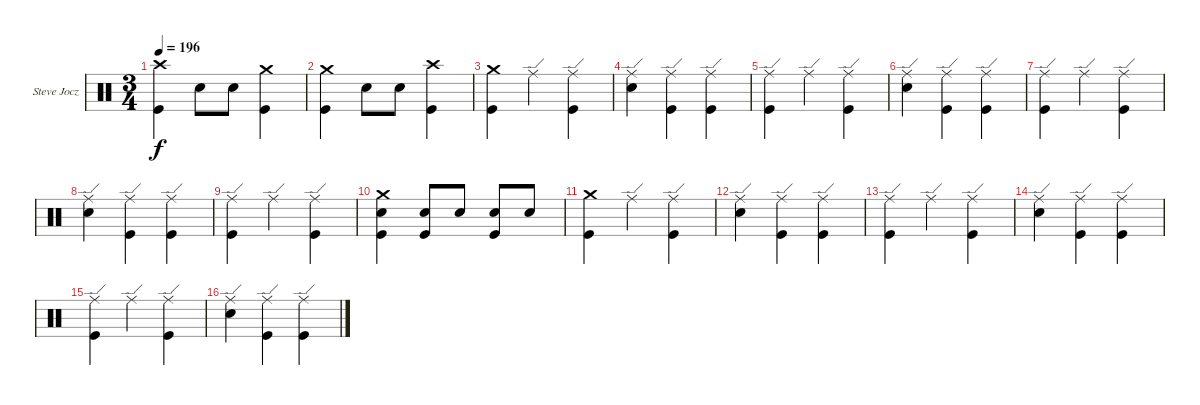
\defaultSystemsLayout 4
\bracketExtendMode groupsimilarinstruments
\firstSystemTrackNameOrientation horizontal
\otherSystemsTrackNameOrientation horizontal
\track ("Steve Jocz " "Steve Jocz") {instrument percussion}
\staff {score}
\articulation defaults
\ts (3 4)
\tempo 196
\clef neutral
\scale
0.333333
\ks c
("Crash high (hit)" "Kick (hit)").4{dy f} "Snare (hit) 2".8 "Snare (hit) 2".8 ("Crash medium (hit)" "Kick (hit)").4 |
\scale
0.333333 ("Crash medium (hit)" "Kick (hit)").4 "Snare (hit) 2".8 "Snare (hit) 2".8 ("Crash high (hit)" "Kick (hit)").4 |
\scale
0.333333 ("Crash medium (hit)" "Kick (hit)").4 "Ride (edge)".4 ("Ride (edge)" "Kick (hit)").4 |
\scale
0.333333 ("Ride (edge)" "Snare (hit) 2").4 ("Ride (edge)" "Kick (hit)").4 ("Ride (edge)" "Kick (hit)").4 |
\scale
0.333333 ("Ride (edge)" "Kick (hit)").4 "Ride (edge)".4 ("Ride (edge)" "Kick (hit)").4 |
\scale
0.333333 ("Ride (edge)" "Snare (hit) 2").4 ("Ride (edge)" "Kick (hit)").4 ("Ride (edge)" "Kick (hit)").4 |
\scale
0.333333 ("Ride (edge)" "Kick (hit)").4 "Ride (edge)".4 ("Ride (edge)" "Kick (hit)").4 |
\scale
0.333333 ("Ride (edge)" "Snare (hit) 2").4 ("Ride (edge)" "Kick (hit)").4 ("Ride (edge)" "Kick (hit)").4 |
\scale
0.333333 ("Ride (edge)" "Kick (hit)").4 "Ride (edge)".4 ("Ride (edge)" "Kick (hit)").4 |
\scale
0.333333 ("Crash medium (hit)" "Snare (hit) 2" "Kick (hit)").4 ("Snare (hit) 2" "Kick (hit)").8 "Snare (hit) 2".8 ("Snare (hit) 2" "Kick (hit)").8 "Snare (hit) 2".8 |
\scale
0.333333 ("Crash medium (hit)" "Kick (hit)").4 "Ride (edge)".4 ("Ride (edge)" "Kick (hit)").4 |
\scale
0.333333 ("Ride (edge)" "Snare (hit) 2").4 ("Ride (edge)" "Kick (hit)").4 ("Ride (edge)" "Kick (hit)").4 |
\scale
0.333333 ("Ride (edge)" "Kick (hit)").4 "Ride (edge)".4 ("Ride (edge)" "Kick (hit)").4 |
\scale
0.333333 ("Ride (edge)" "Snare (hit) 2").4 ("Ride (edge)" "Kick (hit)").4 ("Ride (edge)" "Kick (hit)").4 |
\scale
0.333333 ("Ride (edge)" "Kick (hit)").4 "Ride (edge)".4 ("Ride (edge)" "Kick (hit)").4 |
\scale
0.333333 ("Ride (edge)" "Snare (hit) 2").4 ("Ride (edge)" "Kick (hit)").4 ("Ride (edge)" "Kick (hit)").4
